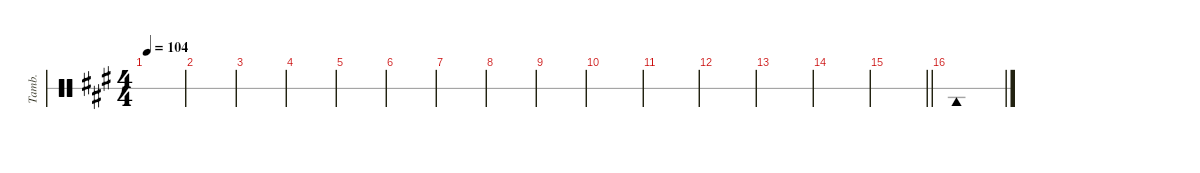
\hideDynamics
\bracketExtendMode nobrackets
\otherSystemsTrackNameOrientation horizontal
\track ("Tambourine" "Tamb.") {instrument percussion}
\staff {score 1}
\articulation defaults
\ts (4 4)
\tempo 104
\clef neutral
\ks a
|
|
|
|
|
|
|
|
|
|
|
|
|
|
\barLineRight lightlight
|
"Tambourine (hit)"{acc forcenatural}.1{beam Down}
